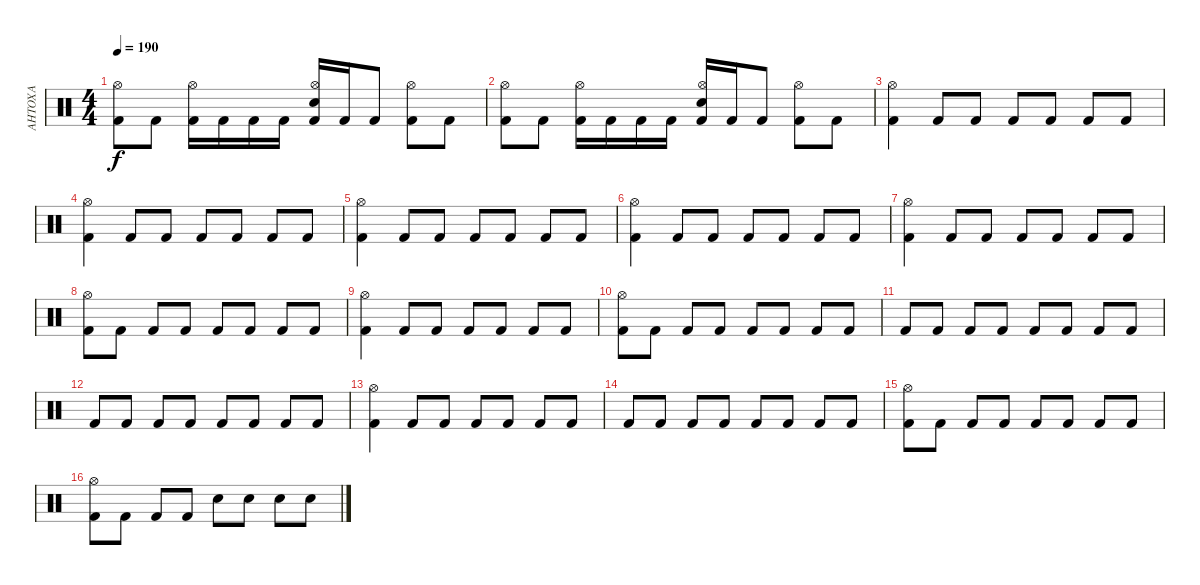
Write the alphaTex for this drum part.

\track ("АНТОХА" "АНТОХА") {instrument percussion}
\staff {score}
\articulation defaults
\ts (4 4)
\tempo 190
\clef neutral
\ks c
("Kick (hit) 2" "Hi-Hat (open)").8{dy f} "Kick (hit) 2".8 ("Hi-Hat (open)" "Kick (hit) 2").16 "Kick (hit) 2".16 "Kick (hit) 2".16 "Kick (hit) 2".16 ("Hi-Hat (open)" "Electric Snare (hit)" "Kick (hit) 2").16 "Kick (hit) 2".16 "Kick (hit) 2".8 ("Hi-Hat (open)" "Kick (hit) 2").8 "Kick (hit) 2".8 |
("Kick (hit) 2" "Hi-Hat (open)").8 "Kick (hit) 2".8 ("Hi-Hat (open)" "Kick (hit) 2").16 "Kick (hit) 2".16 "Kick (hit) 2".16 "Kick (hit) 2".16 ("Hi-Hat (open)" "Electric Snare (hit)" "Kick (hit) 2").16 "Kick (hit) 2".16 "Kick (hit) 2".8 ("Hi-Hat (open)" "Kick (hit) 2").8 "Kick (hit) 2".8 |
("Kick (hit) 2" "Hi-Hat (open)").4 "Kick (hit) 2".8 "Kick (hit) 2".8 "Kick (hit) 2".8 "Kick (hit) 2".8 "Kick (hit) 2".8 "Kick (hit) 2".8 |
("Kick (hit) 2" "Hi-Hat (open)").4 "Kick (hit) 2".8 "Kick (hit) 2".8 "Kick (hit) 2".8 "Kick (hit) 2".8 "Kick (hit) 2".8 "Kick (hit) 2".8 |
("Kick (hit) 2" "Hi-Hat (open)").4 "Kick (hit) 2".8 "Kick (hit) 2".8 "Kick (hit) 2".8 "Kick (hit) 2".8 "Kick (hit) 2".8 "Kick (hit) 2".8 |
("Kick (hit) 2" "Hi-Hat (open)").4 "Kick (hit) 2".8 "Kick (hit) 2".8 "Kick (hit) 2".8 "Kick (hit) 2".8 "Kick (hit) 2".8 "Kick (hit) 2".8 |
("Kick (hit) 2" "Hi-Hat (open)").4 "Kick (hit) 2".8 "Kick (hit) 2".8 "Kick (hit) 2".8 "Kick (hit) 2".8 "Kick (hit) 2".8 "Kick (hit) 2".8 |
("Kick (hit) 2" "Hi-Hat (open)").8 "Kick (hit) 2".8 "Kick (hit) 2".8 "Kick (hit) 2".8 "Kick (hit) 2".8 "Kick (hit) 2".8 "Kick (hit) 2".8 "Kick (hit) 2".8 |
("Kick (hit) 2" "Hi-Hat (open)").4 "Kick (hit) 2".8 "Kick (hit) 2".8 "Kick (hit) 2".8 "Kick (hit) 2".8 "Kick (hit) 2".8 "Kick (hit) 2".8 |
("Kick (hit) 2" "Hi-Hat (open)").8 "Kick (hit) 2".8 "Kick (hit) 2".8 "Kick (hit) 2".8 "Kick (hit) 2".8 "Kick (hit) 2".8 "Kick (hit) 2".8 "Kick (hit) 2".8 |
"Kick (hit) 2".8 "Kick (hit) 2".8 "Kick (hit) 2".8 "Kick (hit) 2".8 "Kick (hit) 2".8 "Kick (hit) 2".8 "Kick (hit) 2".8 "Kick (hit) 2".8 |
"Kick (hit) 2".8 "Kick (hit) 2".8 "Kick (hit) 2".8 "Kick (hit) 2".8 "Kick (hit) 2".8 "Kick (hit) 2".8 "Kick (hit) 2".8 "Kick (hit) 2".8 |
("Kick (hit) 2" "Hi-Hat (open)").4 "Kick (hit) 2".8 "Kick (hit) 2".8 "Kick (hit) 2".8 "Kick (hit) 2".8 "Kick (hit) 2".8 "Kick (hit) 2".8 |
"Kick (hit) 2".8 "Kick (hit) 2".8 "Kick (hit) 2".8 "Kick (hit) 2".8 "Kick (hit) 2".8 "Kick (hit) 2".8 "Kick (hit) 2".8 "Kick (hit) 2".8 |
("Kick (hit) 2" "Hi-Hat (open)").8 "Kick (hit) 2".8 "Kick (hit) 2".8 "Kick (hit) 2".8 "Kick (hit) 2".8 "Kick (hit) 2".8 "Kick (hit) 2".8 "Kick (hit) 2".8 |
("Kick (hit) 2" "Hi-Hat (open)").8 "Kick (hit) 2".8 "Kick (hit) 2".8 "Kick (hit) 2".8 "Electric Snare (hit)".8 "Electric Snare (hit)".8 "Electric Snare (hit)".8 "Electric Snare (hit)".8
